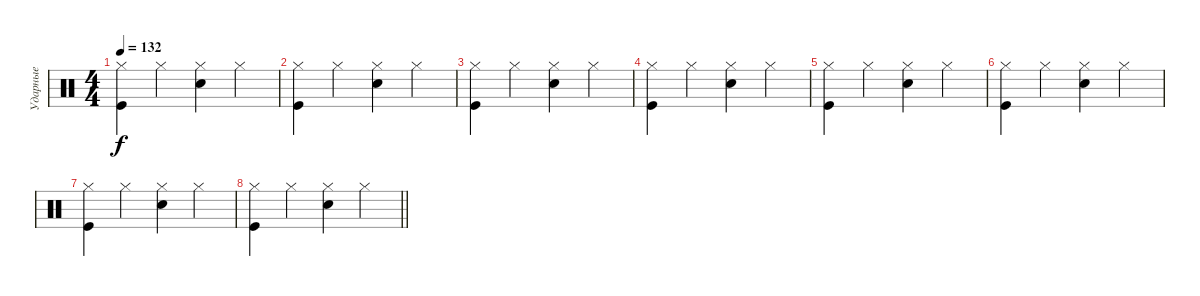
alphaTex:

\track ("Ударные" "Ударные") {instrument percussion}
\staff {score}
\articulation defaults
\ts (4 4)
\tempo 132
\clef neutral
\ks c
("Hi-Hat (closed)" "Kick (hit)").4{dy f} "Hi-Hat (closed)".4 ("Hi-Hat (closed)" "Snare (hit) 2").4 "Hi-Hat (closed)".4 |
("Hi-Hat (closed)" "Kick (hit)").4 "Hi-Hat (closed)".4 ("Hi-Hat (closed)" "Snare (hit) 2").4 "Hi-Hat (closed)".4 |
("Hi-Hat (closed)" "Kick (hit)").4 "Hi-Hat (closed)".4 ("Hi-Hat (closed)" "Snare (hit) 2").4 "Hi-Hat (closed)".4 |
("Hi-Hat (closed)" "Kick (hit)").4 "Hi-Hat (closed)".4 ("Hi-Hat (closed)" "Snare (hit) 2").4 "Hi-Hat (closed)".4 |
("Hi-Hat (closed)" "Kick (hit)").4 "Hi-Hat (closed)".4 ("Hi-Hat (closed)" "Snare (hit) 2").4 "Hi-Hat (closed)".4 |
("Hi-Hat (closed)" "Kick (hit)").4 "Hi-Hat (closed)".4 ("Hi-Hat (closed)" "Snare (hit) 2").4 "Hi-Hat (closed)".4 |
("Hi-Hat (closed)" "Kick (hit)").4 "Hi-Hat (closed)".4 ("Hi-Hat (closed)" "Snare (hit) 2").4 "Hi-Hat (closed)".4 |
\barLineRight lightlight
("Hi-Hat (closed)" "Kick (hit)").4 "Hi-Hat (closed)".4 ("Hi-Hat (closed)" "Snare (hit) 2").4 "Hi-Hat (closed)".4
